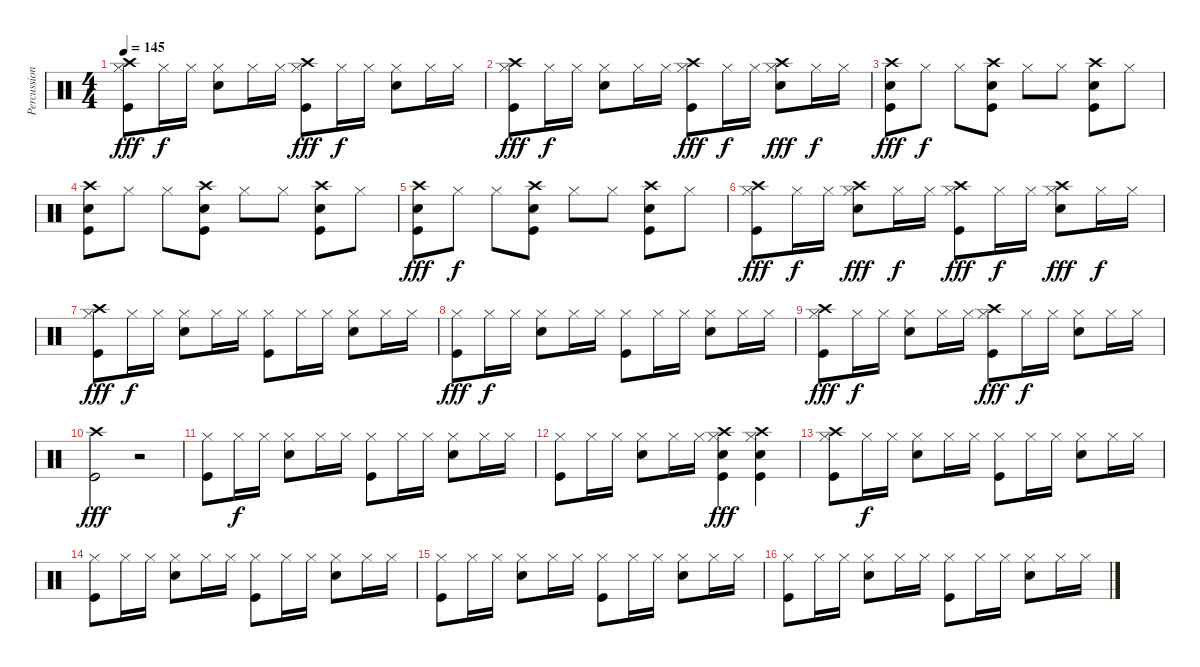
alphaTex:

\track ("Percussion" "Percussion") {instrument percussion}
\staff {score}
\articulation defaults
\ts (4 4)
\tempo 145
\clef neutral
\ks c
("Crash high (hit)" "Kick (hit)" "Hi-Hat (closed)").8{dy fff} "Hi-Hat (closed)".16{dy f} "Hi-Hat (closed)".16 ("Snare (hit) 2" "Hi-Hat (closed)").8 "Hi-Hat (closed)".16 "Hi-Hat (closed)".16 ("Crash high (hit)" "Kick (hit)" "Hi-Hat (closed)").8{dy fff} "Hi-Hat (closed)".16{dy f} "Hi-Hat (closed)".16 ("Snare (hit) 2" "Hi-Hat (closed)").8 "Hi-Hat (closed)".16 "Hi-Hat (closed)".16 |
("Hi-Hat (closed)" "Kick (hit)" "Crash high (hit)").8{dy fff} "Hi-Hat (closed)".16{dy f} "Hi-Hat (closed)".16 ("Hi-Hat (closed)" "Snare (hit) 2").8 "Hi-Hat (closed)".16 "Hi-Hat (closed)".16 ("Hi-Hat (closed)" "Kick (hit)" "Crash high (hit)").8{dy fff} "Hi-Hat (closed)".16{dy f} "Hi-Hat (closed)".16 ("Hi-Hat (closed)" "Snare (hit) 2" "Crash high (hit)").8{dy fff} "Hi-Hat (closed)".16{dy f} "Hi-Hat (closed)".16 |
("Crash high (hit)" "Kick (hit)" "Snare (hit) 2").8{dy fff} "Hi-Hat (closed)".8{dy f} "Hi-Hat (closed)".8 ("Kick (hit)" "Snare (hit) 2" "Crash high (hit)").8 "Hi-Hat (closed)".8 "Hi-Hat (closed)".8 ("Crash high (hit)" "Snare (hit) 2" "Kick (hit)").8 "Hi-Hat (closed)".8 |
("Crash high (hit)" "Snare (hit) 2" "Kick (hit)").8 "Hi-Hat (closed)".8 "Hi-Hat (closed)".8 ("Kick (hit)" "Snare (hit) 2" "Crash high (hit)").8 "Hi-Hat (closed)".8 "Hi-Hat (closed)".8 ("Kick (hit)" "Snare (hit) 2" "Crash high (hit)").8 "Hi-Hat (closed)".8 |
("Kick (hit)" "Snare (hit) 2" "Crash high (hit)").8{dy fff} "Hi-Hat (closed)".8{dy f} "Hi-Hat (closed)".8 ("Kick (hit)" "Snare (hit) 2" "Crash high (hit)").8 "Hi-Hat (closed)".8 "Hi-Hat (closed)".8 ("Kick (hit)" "Snare (hit) 2" "Crash high (hit)").8 "Hi-Hat (closed)".8 |
("Crash high (hit)" "Kick (hit)" "Hi-Hat (closed)").8{dy fff} "Hi-Hat (closed)".16{dy f} "Hi-Hat (closed)".16 ("Crash high (hit)" "Snare (hit) 2" "Hi-Hat (closed)").8{dy fff} "Hi-Hat (closed)".16{dy f} "Hi-Hat (closed)".16 ("Crash high (hit)" "Kick (hit)" "Hi-Hat (closed)").8{dy fff} "Hi-Hat (closed)".16{dy f} "Hi-Hat (closed)".16 ("Crash high (hit)" "Snare (hit) 2" "Hi-Hat (closed)").8{dy fff} "Hi-Hat (closed)".16{dy f} "Hi-Hat (closed)".16 |
("Crash high (hit)" "Kick (hit)" "Hi-Hat (closed)").8{dy fff} "Hi-Hat (closed)".16{dy f} "Hi-Hat (closed)".16 ("Snare (hit) 2" "Hi-Hat (closed)").8 "Hi-Hat (closed)".16 "Hi-Hat (closed)".16 ("Kick (hit)" "Hi-Hat (closed)").8 "Hi-Hat (closed)".16 "Hi-Hat (closed)".16 ("Snare (hit) 2" "Hi-Hat (closed)").8 "Hi-Hat (closed)".16 "Hi-Hat (closed)".16 |
("Kick (hit)" "Hi-Hat (closed)").8{dy fff} "Hi-Hat (closed)".16{dy f} "Hi-Hat (closed)".16 ("Snare (hit) 2" "Hi-Hat (closed)").8 "Hi-Hat (closed)".16 "Hi-Hat (closed)".16 ("Kick (hit)" "Hi-Hat (closed)").8 "Hi-Hat (closed)".16 "Hi-Hat (closed)".16 ("Snare (hit) 2" "Hi-Hat (closed)").8 "Hi-Hat (closed)".16 "Hi-Hat (closed)".16 |
("Crash high (hit)" "Kick (hit)" "Hi-Hat (closed)").8{dy fff} "Hi-Hat (closed)".16{dy f} "Hi-Hat (closed)".16 ("Snare (hit) 2" "Hi-Hat (closed)").8 "Hi-Hat (closed)".16 "Hi-Hat (closed)".16 ("Crash high (hit)" "Kick (hit)" "Hi-Hat (closed)").8{dy fff} "Hi-Hat (closed)".16{dy f} "Hi-Hat (closed)".16 ("Snare (hit) 2" "Hi-Hat (closed)").8 "Hi-Hat (closed)".16 "Hi-Hat (closed)".16 |
("Crash high (hit)" "Kick (hit)").2{dy fff} r.2 |
("Kick (hit)" "Hi-Hat (closed)").8 "Hi-Hat (closed)".16{dy f} "Hi-Hat (closed)".16 ("Snare (hit) 2" "Hi-Hat (closed)").8 "Hi-Hat (closed)".16 "Hi-Hat (closed)".16 ("Kick (hit)" "Hi-Hat (closed)").8 "Hi-Hat (closed)".16 "Hi-Hat (closed)".16 ("Snare (hit) 2" "Hi-Hat (closed)").8 "Hi-Hat (closed)".16 "Hi-Hat (closed)".16 |
("Kick (hit)" "Hi-Hat (closed)").8 "Hi-Hat (closed)".16 "Hi-Hat (closed)".16 ("Snare (hit) 2" "Hi-Hat (closed)").8 "Hi-Hat (closed)".16 "Hi-Hat (closed)".16 ("Hi-Hat (closed)" "Crash high (hit)" "Snare (hit) 2" "Kick (hit)").4{dy fff} ("Hi-Hat (closed)" "Crash high (hit)" "Snare (hit) 2" "Kick (hit)").4 |
("Crash high (hit)" "Hi-Hat (closed)" "Kick (hit)").8 "Hi-Hat (closed)".16{dy f} "Hi-Hat (closed)".16 ("Hi-Hat (closed)" "Snare (hit) 2").8 "Hi-Hat (closed)".16 "Hi-Hat (closed)".16 ("Hi-Hat (closed)" "Kick (hit)").8 "Hi-Hat (closed)".16 "Hi-Hat (closed)".16 ("Hi-Hat (closed)" "Snare (hit) 2").8 "Hi-Hat (closed)".16 "Hi-Hat (closed)".16 |
("Kick (hit)" "Hi-Hat (closed)").8 "Hi-Hat (closed)".16 "Hi-Hat (closed)".16 ("Snare (hit) 2" "Hi-Hat (closed)").8 "Hi-Hat (closed)".16 "Hi-Hat (closed)".16 ("Kick (hit)" "Hi-Hat (closed)").8 "Hi-Hat (closed)".16 "Hi-Hat (closed)".16 ("Snare (hit) 2" "Hi-Hat (closed)").8 "Hi-Hat (closed)".16 "Hi-Hat (closed)".16 |
("Kick (hit)" "Hi-Hat (closed)").8 "Hi-Hat (closed)".16 "Hi-Hat (closed)".16 ("Snare (hit) 2" "Hi-Hat (closed)").8 "Hi-Hat (closed)".16 "Hi-Hat (closed)".16 ("Kick (hit)" "Hi-Hat (closed)").8 "Hi-Hat (closed)".16 "Hi-Hat (closed)".16 ("Snare (hit) 2" "Hi-Hat (closed)").8 "Hi-Hat (closed)".16 "Hi-Hat (closed)".16 |
("Kick (hit)" "Hi-Hat (closed)").8 "Hi-Hat (closed)".16 "Hi-Hat (closed)".16 ("Snare (hit) 2" "Hi-Hat (closed)").8 "Hi-Hat (closed)".16 "Hi-Hat (closed)".16 ("Kick (hit)" "Hi-Hat (closed)").8 "Hi-Hat (closed)".16 "Hi-Hat (closed)".16 ("Snare (hit) 2" "Hi-Hat (closed)").8 "Hi-Hat (closed)".16 "Hi-Hat (closed)".16
